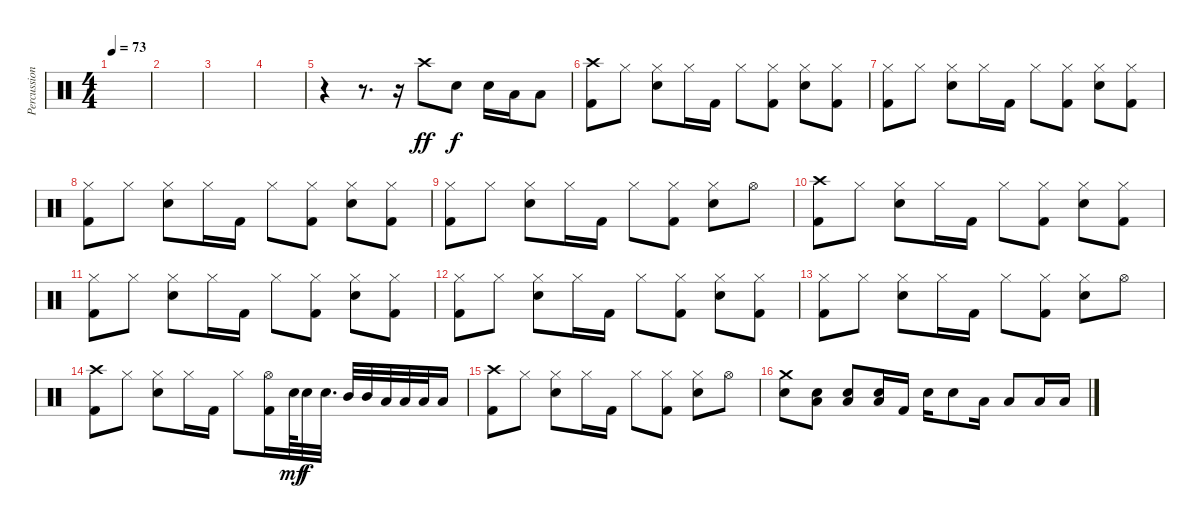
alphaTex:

\track ("Percussion" "Percussion") {instrument percussion}
\staff {score}
\articulation defaults
\ts (4 4)
\tempo 73
\clef neutral
\ks c
|
|
|
|
r.4 r.8{d} r.16 "Crash high (hit)".8{dy ff} "Electric Snare (hit)".8{dy f} "Electric Snare (hit)".16 "Low Floor Tom (hit)".16 "Low Floor Tom (hit)".8 |
("Crash high (hit)" "Kick (hit) 2").8 "Hi-Hat (closed)".8 ("Hi-Hat (closed)" "Electric Snare (hit)").8 "Hi-Hat (closed)".16 "Kick (hit) 2".16 "Hi-Hat (closed)".8 ("Hi-Hat (closed)" "Kick (hit) 2").8 ("Hi-Hat (closed)" "Electric Snare (hit)").8 ("Hi-Hat (closed)" "Kick (hit) 2").8 |
("Hi-Hat (closed)" "Kick (hit) 2").8 "Hi-Hat (closed)".8 ("Hi-Hat (closed)" "Electric Snare (hit)").8 "Hi-Hat (closed)".16 "Kick (hit) 2".16 "Hi-Hat (closed)".8 ("Hi-Hat (closed)" "Kick (hit) 2").8 ("Hi-Hat (closed)" "Electric Snare (hit)").8 ("Hi-Hat (closed)" "Kick (hit) 2").8 |
("Hi-Hat (closed)" "Kick (hit) 2").8 "Hi-Hat (closed)".8 ("Hi-Hat (closed)" "Electric Snare (hit)").8 "Hi-Hat (closed)".16 "Kick (hit) 2".16 "Hi-Hat (closed)".8 ("Hi-Hat (closed)" "Kick (hit) 2").8 ("Hi-Hat (closed)" "Electric Snare (hit)").8 ("Hi-Hat (closed)" "Kick (hit) 2").8 |
("Hi-Hat (closed)" "Kick (hit) 2").8 "Hi-Hat (closed)".8 ("Hi-Hat (closed)" "Electric Snare (hit)").8 "Hi-Hat (closed)".16 "Kick (hit) 2".16 "Hi-Hat (closed)".8 ("Hi-Hat (closed)" "Kick (hit) 2").8 ("Hi-Hat (closed)" "Electric Snare (hit)").8 "Hi-Hat (open)".8 |
("Crash high (hit)" "Kick (hit) 2").8 "Hi-Hat (closed)".8 ("Hi-Hat (closed)" "Electric Snare (hit)").8 "Hi-Hat (closed)".16 "Kick (hit) 2".16 "Hi-Hat (closed)".8 ("Hi-Hat (closed)" "Kick (hit) 2").8 ("Hi-Hat (closed)" "Electric Snare (hit)").8 ("Hi-Hat (closed)" "Kick (hit) 2").8 |
("Hi-Hat (closed)" "Kick (hit) 2").8 "Hi-Hat (closed)".8 ("Hi-Hat (closed)" "Electric Snare (hit)").8 "Hi-Hat (closed)".16 "Kick (hit) 2".16 "Hi-Hat (closed)".8 ("Hi-Hat (closed)" "Kick (hit) 2").8 ("Hi-Hat (closed)" "Electric Snare (hit)").8 ("Hi-Hat (closed)" "Kick (hit) 2").8 |
("Hi-Hat (closed)" "Kick (hit) 2").8 "Hi-Hat (closed)".8 ("Hi-Hat (closed)" "Electric Snare (hit)").8 "Hi-Hat (closed)".16 "Kick (hit) 2".16 "Hi-Hat (closed)".8 ("Hi-Hat (closed)" "Kick (hit) 2").8 ("Hi-Hat (closed)" "Electric Snare (hit)").8 ("Hi-Hat (closed)" "Kick (hit) 2").8 |
("Hi-Hat (closed)" "Kick (hit) 2").8 "Hi-Hat (closed)".8 ("Hi-Hat (closed)" "Electric Snare (hit)").8 "Hi-Hat (closed)".16 "Kick (hit) 2".16 "Hi-Hat (closed)".8 ("Hi-Hat (closed)" "Kick (hit) 2").8 ("Hi-Hat (closed)" "Electric Snare (hit)").8 "Hi-Hat (open)".8 |
("Crash high (hit)" "Kick (hit) 2").8 "Hi-Hat (closed)".8 ("Hi-Hat (closed)" "Electric Snare (hit)").8 "Hi-Hat (closed)".16 "Kick (hit) 2".16 "Hi-Hat (closed)".8 ("Hi-Hat (open)" "Kick (hit) 2").16 "Electric Snare (hit)".64{dy mf} "Electric Snare (hit)".32{dy f} "Electric Snare (hit)".32{d} "Mid Tom (hit)".32 "Mid Tom (hit)".32 "Low Tom (hit)".32 "Low Tom (hit)".32 "Low Floor Tom (hit)".32 "Low Floor Tom (hit)".16 |
("Crash high (hit)" "Kick (hit) 2").8 "Hi-Hat (closed)".8 ("Hi-Hat (closed)" "Electric Snare (hit)").8 "Hi-Hat (closed)".16 "Kick (hit) 2".16 "Hi-Hat (closed)".8 ("Hi-Hat (closed)" "Kick (hit) 2").8 ("Hi-Hat (closed)" "Electric Snare (hit)").8 "Hi-Hat (open)".8 |
("Crash medium (hit)" "Electric Snare (hit)").8 ("Low Floor Tom (hit)" "Electric Snare (hit)").8 ("Low Floor Tom (hit)" "Electric Snare (hit)").8 ("Low Floor Tom (hit)" "Electric Snare (hit)").16 "Kick (hit) 2".16 "Electric Snare (hit)".16 "Electric Snare (hit)".8 "Low Tom (hit)".16 "Low Tom (hit)".8 "Low Floor Tom (hit)".16 "Low Floor Tom (hit)".16
